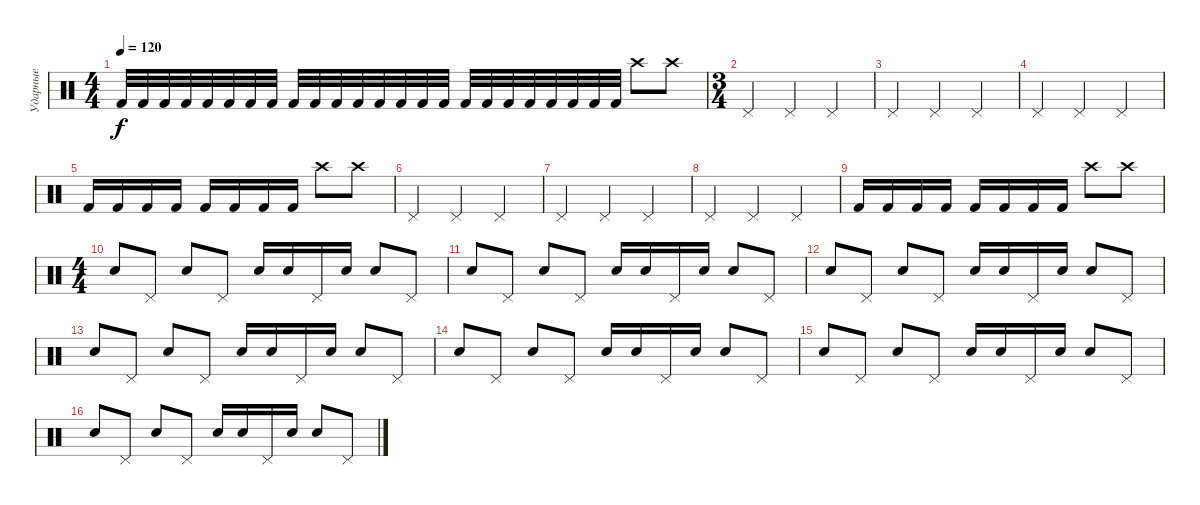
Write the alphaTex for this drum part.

\track ("Ударные" "Ударные") {instrument percussion}
\staff {score}
\articulation defaults
\ts (4 4)
\tempo 120
\clef neutral
\ks c "Kick (hit) 2".32{dy f} "Kick (hit) 2".32 "Kick (hit) 2".32 "Kick (hit) 2".32 "Kick (hit) 2".32 "Kick (hit) 2".32 "Kick (hit) 2".32 "Kick (hit) 2".32 "Kick (hit) 2".32 "Kick (hit) 2".32 "Kick (hit) 2".32 "Kick (hit) 2".32 "Kick (hit) 2".32 "Kick (hit) 2".32 "Kick (hit) 2".32 "Kick (hit) 2".32 "Kick (hit) 2".32 "Kick (hit) 2".32 "Kick (hit) 2".32 "Kick (hit) 2".32 "Kick (hit) 2".32 "Kick (hit) 2".32 "Kick (hit) 2".32 "Kick (hit) 2".32 "Crash high (hit)".8 "Crash high (hit)".8
|
\ts (3 4)
"Pedal Hi-Hat (hit)".4 "Pedal Hi-Hat (hit)".4 "Pedal Hi-Hat (hit)".4 |
"Pedal Hi-Hat (hit)".4 "Pedal Hi-Hat (hit)".4 "Pedal Hi-Hat (hit)".4 |
"Pedal Hi-Hat (hit)".4 "Pedal Hi-Hat (hit)".4 "Pedal Hi-Hat (hit)".4 |
"Kick (hit) 2".16 "Kick (hit) 2".16 "Kick (hit) 2".16 "Kick (hit) 2".16 "Kick (hit) 2".16 "Kick (hit) 2".16 "Kick (hit) 2".16 "Kick (hit) 2".16 "Crash high (hit)".8 "Crash high (hit)".8 |
"Pedal Hi-Hat (hit)".4 "Pedal Hi-Hat (hit)".4 "Pedal Hi-Hat (hit)".4 |
"Pedal Hi-Hat (hit)".4 "Pedal Hi-Hat (hit)".4 "Pedal Hi-Hat (hit)".4 |
"Pedal Hi-Hat (hit)".4 "Pedal Hi-Hat (hit)".4 "Pedal Hi-Hat (hit)".4 |
"Kick (hit) 2".16 "Kick (hit) 2".16 "Kick (hit) 2".16 "Kick (hit) 2".16 "Kick (hit) 2".16 "Kick (hit) 2".16 "Kick (hit) 2".16 "Kick (hit) 2".16 "Crash high (hit)".8 "Crash high (hit)".8 |
\ts (4 4)
"Snare (hit) 2".8 "Pedal Hi-Hat (hit)".8 "Snare (hit) 2".8 "Pedal Hi-Hat (hit)".8 "Snare (hit) 2".16 "Snare (hit) 2".16 "Pedal Hi-Hat (hit)".16 "Snare (hit) 2".16 "Snare (hit) 2".8 "Pedal Hi-Hat (hit)".8 |
"Snare (hit) 2".8 "Pedal Hi-Hat (hit)".8 "Snare (hit) 2".8 "Pedal Hi-Hat (hit)".8 "Snare (hit) 2".16 "Snare (hit) 2".16 "Pedal Hi-Hat (hit)".16 "Snare (hit) 2".16 "Snare (hit) 2".8 "Pedal Hi-Hat (hit)".8 |
"Snare (hit) 2".8 "Pedal Hi-Hat (hit)".8 "Snare (hit) 2".8 "Pedal Hi-Hat (hit)".8 "Snare (hit) 2".16 "Snare (hit) 2".16 "Pedal Hi-Hat (hit)".16 "Snare (hit) 2".16 "Snare (hit) 2".8 "Pedal Hi-Hat (hit)".8 |
"Snare (hit) 2".8 "Pedal Hi-Hat (hit)".8 "Snare (hit) 2".8 "Pedal Hi-Hat (hit)".8 "Snare (hit) 2".16 "Snare (hit) 2".16 "Pedal Hi-Hat (hit)".16 "Snare (hit) 2".16 "Snare (hit) 2".8 "Pedal Hi-Hat (hit)".8 |
"Snare (hit) 2".8 "Pedal Hi-Hat (hit)".8 "Snare (hit) 2".8 "Pedal Hi-Hat (hit)".8 "Snare (hit) 2".16 "Snare (hit) 2".16 "Pedal Hi-Hat (hit)".16 "Snare (hit) 2".16 "Snare (hit) 2".8 "Pedal Hi-Hat (hit)".8 |
"Snare (hit) 2".8 "Pedal Hi-Hat (hit)".8 "Snare (hit) 2".8 "Pedal Hi-Hat (hit)".8 "Snare (hit) 2".16 "Snare (hit) 2".16 "Pedal Hi-Hat (hit)".16 "Snare (hit) 2".16 "Snare (hit) 2".8 "Pedal Hi-Hat (hit)".8 |
"Snare (hit) 2".8 "Pedal Hi-Hat (hit)".8 "Snare (hit) 2".8 "Pedal Hi-Hat (hit)".8 "Snare (hit) 2".16 "Snare (hit) 2".16 "Pedal Hi-Hat (hit)".16 "Snare (hit) 2".16 "Snare (hit) 2".8 "Pedal Hi-Hat (hit)".8
